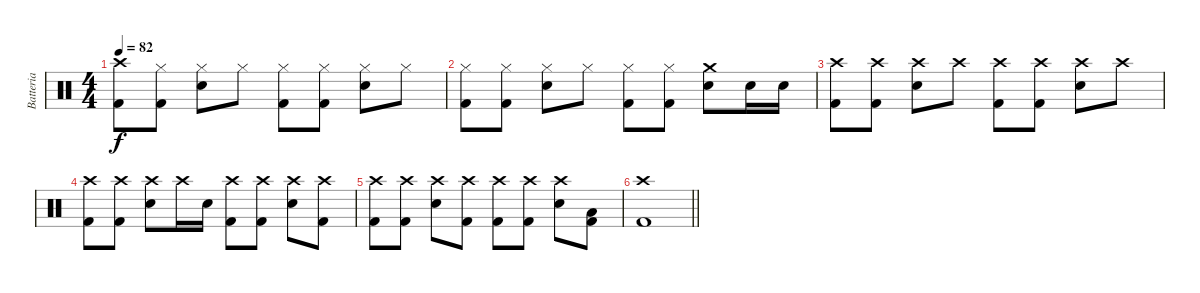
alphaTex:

\track ("Batteria" "Batteria") {instrument percussion}
\staff {score}
\articulation defaults
\ts (4 4)
\tempo 82
\clef neutral
\ks c
("Crash high (hit)" "Kick (hit) 2").8{dy f} ("Hi-Hat (closed)" "Kick (hit) 2").8 ("Hi-Hat (closed)" "Snare (hit) 2").8 "Hi-Hat (closed)".8 ("Hi-Hat (closed)" "Kick (hit) 2").8 ("Hi-Hat (closed)" "Kick (hit) 2").8 ("Hi-Hat (closed)" "Snare (hit) 2").8 "Hi-Hat (closed)".8 |
("Hi-Hat (closed)" "Kick (hit) 2").8 ("Hi-Hat (closed)" "Kick (hit) 2").8 ("Hi-Hat (closed)" "Snare (hit) 2").8 "Hi-Hat (closed)".8 ("Hi-Hat (closed)" "Kick (hit) 2").8 ("Hi-Hat (closed)" "Kick (hit) 2").8 ("Crash medium (hit)" "Snare (hit) 2").8 "Snare (hit) 2".16 "Snare (hit) 2".16 |
("Crash high (hit)" "Kick (hit) 2").8 ("Crash high (hit)" "Kick (hit) 2").8 ("Crash high (hit)" "Snare (hit) 2").8 "Crash high (hit)".8 ("Crash high (hit)" "Kick (hit) 2").8 ("Crash high (hit)" "Kick (hit) 2").8 ("Crash high (hit)" "Snare (hit) 2").8 "Crash high (hit)".8 |
("Crash high (hit)" "Kick (hit) 2").8 ("Crash high (hit)" "Kick (hit) 2").8 ("Crash high (hit)" "Snare (hit) 2").8 "Crash high (hit)".16 "Snare (hit) 2".16 ("Crash high (hit)" "Kick (hit) 2").8 ("Crash high (hit)" "Kick (hit) 2").8 ("Crash high (hit)" "Snare (hit) 2").8 ("Crash high (hit)" "Kick (hit) 2").8 |
("Crash high (hit)" "Kick (hit) 2").8 ("Crash high (hit)" "Kick (hit) 2").8 ("Crash high (hit)" "Snare (hit) 2").8 ("Crash high (hit)" "Kick (hit) 2").8 ("Crash high (hit)" "Kick (hit) 2").8 ("Crash high (hit)" "Kick (hit) 2").8 ("Crash high (hit)" "Snare (hit) 2").8 ("Low Floor Tom (hit)" "Kick (hit) 2").8 |
\barLineRight lightlight
("Crash high (hit)" "Kick (hit) 2").1
